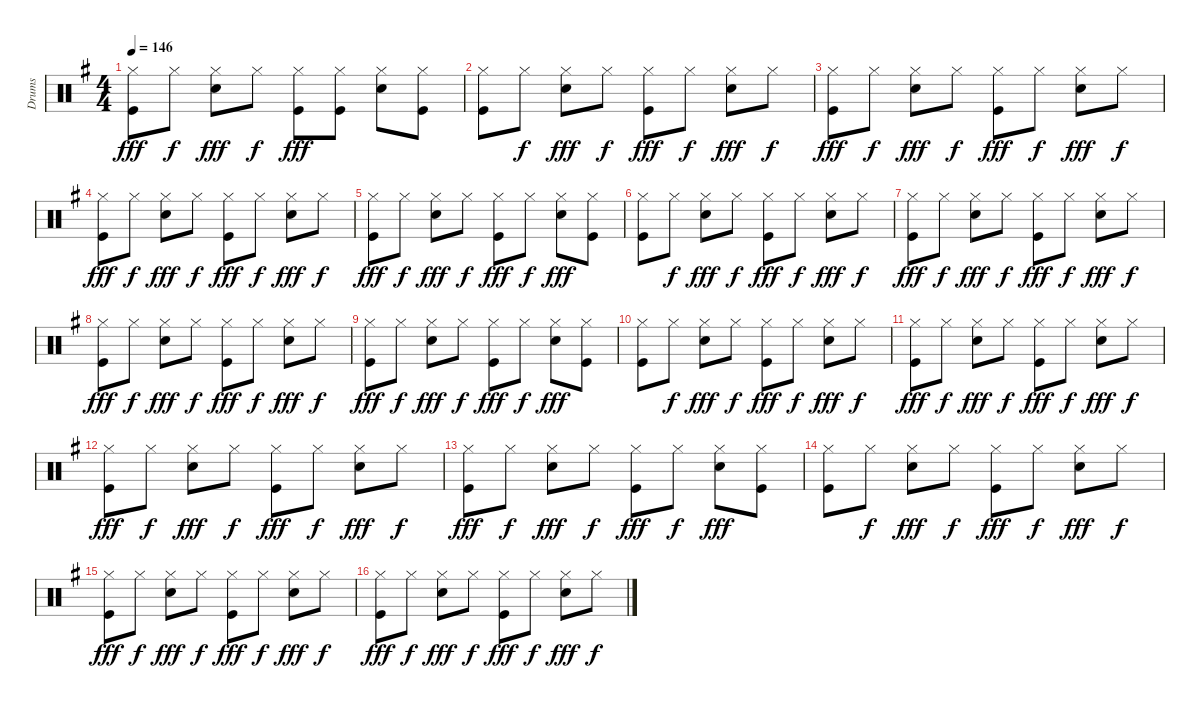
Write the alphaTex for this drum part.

\track ("Drums" "Drums") {instrument percussion}
\staff {score}
\articulation defaults
\ts (4 4)
\tempo 146
\clef neutral
\ks g
("Hi-Hat (closed)" "Kick (hit)").8{dy fff} "Hi-Hat (closed)".8{dy f} ("Hi-Hat (closed)" "Snare (hit) 2").8{dy fff} "Hi-Hat (closed)".8{dy f} ("Hi-Hat (closed)" "Kick (hit)").8{dy fff} ("Hi-Hat (closed)" "Kick (hit)").8 ("Hi-Hat (closed)" "Snare (hit) 2").8 ("Hi-Hat (closed)" "Kick (hit)").8 |
("Hi-Hat (closed)" "Kick (hit)").8 "Hi-Hat (closed)".8{dy f} ("Hi-Hat (closed)" "Snare (hit) 2").8{dy fff} "Hi-Hat (closed)".8{dy f} ("Hi-Hat (closed)" "Kick (hit)").8{dy fff} "Hi-Hat (closed)".8{dy f} ("Hi-Hat (closed)" "Snare (hit) 2").8{dy fff} "Hi-Hat (closed)".8{dy f} |
("Hi-Hat (closed)" "Kick (hit)").8{dy fff} "Hi-Hat (closed)".8{dy f} ("Hi-Hat (closed)" "Snare (hit) 2").8{dy fff} "Hi-Hat (closed)".8{dy f} ("Hi-Hat (closed)" "Kick (hit)").8{dy fff} "Hi-Hat (closed)".8{dy f} ("Hi-Hat (closed)" "Snare (hit) 2").8{dy fff} "Hi-Hat (closed)".8{dy f} |
("Hi-Hat (closed)" "Kick (hit)").8{dy fff} "Hi-Hat (closed)".8{dy f} ("Hi-Hat (closed)" "Snare (hit) 2").8{dy fff} "Hi-Hat (closed)".8{dy f} ("Hi-Hat (closed)" "Kick (hit)").8{dy fff} "Hi-Hat (closed)".8{dy f} ("Hi-Hat (closed)" "Snare (hit) 2").8{dy fff} "Hi-Hat (closed)".8{dy f} |
("Hi-Hat (closed)" "Kick (hit)").8{dy fff} "Hi-Hat (closed)".8{dy f} ("Hi-Hat (closed)" "Snare (hit) 2").8{dy fff} "Hi-Hat (closed)".8{dy f} ("Hi-Hat (closed)" "Kick (hit)").8{dy fff} "Hi-Hat (closed)".8{dy f} ("Hi-Hat (closed)" "Snare (hit) 2").8{dy fff} ("Hi-Hat (closed)" "Kick (hit)").8 |
("Hi-Hat (closed)" "Kick (hit)").8 "Hi-Hat (closed)".8{dy f} ("Hi-Hat (closed)" "Snare (hit) 2").8{dy fff} "Hi-Hat (closed)".8{dy f} ("Hi-Hat (closed)" "Kick (hit)").8{dy fff} "Hi-Hat (closed)".8{dy f} ("Hi-Hat (closed)" "Snare (hit) 2").8{dy fff} "Hi-Hat (closed)".8{dy f} |
("Hi-Hat (closed)" "Kick (hit)").8{dy fff} "Hi-Hat (closed)".8{dy f} ("Hi-Hat (closed)" "Snare (hit) 2").8{dy fff} "Hi-Hat (closed)".8{dy f} ("Hi-Hat (closed)" "Kick (hit)").8{dy fff} "Hi-Hat (closed)".8{dy f} ("Hi-Hat (closed)" "Snare (hit) 2").8{dy fff} "Hi-Hat (closed)".8{dy f} |
("Hi-Hat (closed)" "Kick (hit)").8{dy fff} "Hi-Hat (closed)".8{dy f} ("Hi-Hat (closed)" "Snare (hit) 2").8{dy fff} "Hi-Hat (closed)".8{dy f} ("Hi-Hat (closed)" "Kick (hit)").8{dy fff} "Hi-Hat (closed)".8{dy f} ("Hi-Hat (closed)" "Snare (hit) 2").8{dy fff} "Hi-Hat (closed)".8{dy f} |
("Hi-Hat (closed)" "Kick (hit)").8{dy fff} "Hi-Hat (closed)".8{dy f} ("Hi-Hat (closed)" "Snare (hit) 2").8{dy fff} "Hi-Hat (closed)".8{dy f} ("Hi-Hat (closed)" "Kick (hit)").8{dy fff} "Hi-Hat (closed)".8{dy f} ("Hi-Hat (closed)" "Snare (hit) 2").8{dy fff} ("Hi-Hat (closed)" "Kick (hit)").8 |
("Hi-Hat (closed)" "Kick (hit)").8 "Hi-Hat (closed)".8{dy f} ("Hi-Hat (closed)" "Snare (hit) 2").8{dy fff} "Hi-Hat (closed)".8{dy f} ("Hi-Hat (closed)" "Kick (hit)").8{dy fff} "Hi-Hat (closed)".8{dy f} ("Hi-Hat (closed)" "Snare (hit) 2").8{dy fff} "Hi-Hat (closed)".8{dy f} |
("Hi-Hat (closed)" "Kick (hit)").8{dy fff} "Hi-Hat (closed)".8{dy f} ("Hi-Hat (closed)" "Snare (hit) 2").8{dy fff} "Hi-Hat (closed)".8{dy f} ("Hi-Hat (closed)" "Kick (hit)").8{dy fff} "Hi-Hat (closed)".8{dy f} ("Hi-Hat (closed)" "Snare (hit) 2").8{dy fff} "Hi-Hat (closed)".8{dy f} |
("Hi-Hat (closed)" "Kick (hit)").8{dy fff} "Hi-Hat (closed)".8{dy f} ("Hi-Hat (closed)" "Snare (hit) 2").8{dy fff} "Hi-Hat (closed)".8{dy f} ("Hi-Hat (closed)" "Kick (hit)").8{dy fff} "Hi-Hat (closed)".8{dy f} ("Hi-Hat (closed)" "Snare (hit) 2").8{dy fff} "Hi-Hat (closed)".8{dy f} |
("Hi-Hat (closed)" "Kick (hit)").8{dy fff} "Hi-Hat (closed)".8{dy f} ("Hi-Hat (closed)" "Snare (hit) 2").8{dy fff} "Hi-Hat (closed)".8{dy f} ("Hi-Hat (closed)" "Kick (hit)").8{dy fff} "Hi-Hat (closed)".8{dy f} ("Hi-Hat (closed)" "Snare (hit) 2").8{dy fff} ("Hi-Hat (closed)" "Kick (hit)").8 |
("Hi-Hat (closed)" "Kick (hit)").8 "Hi-Hat (closed)".8{dy f} ("Hi-Hat (closed)" "Snare (hit) 2").8{dy fff} "Hi-Hat (closed)".8{dy f} ("Hi-Hat (closed)" "Kick (hit)").8{dy fff} "Hi-Hat (closed)".8{dy f} ("Hi-Hat (closed)" "Snare (hit) 2").8{dy fff} "Hi-Hat (closed)".8{dy f} |
("Hi-Hat (closed)" "Kick (hit)").8{dy fff} "Hi-Hat (closed)".8{dy f} ("Hi-Hat (closed)" "Snare (hit) 2").8{dy fff} "Hi-Hat (closed)".8{dy f} ("Hi-Hat (closed)" "Kick (hit)").8{dy fff} "Hi-Hat (closed)".8{dy f} ("Hi-Hat (closed)" "Snare (hit) 2").8{dy fff} "Hi-Hat (closed)".8{dy f} |
("Hi-Hat (closed)" "Kick (hit)").8{dy fff} "Hi-Hat (closed)".8{dy f} ("Hi-Hat (closed)" "Snare (hit) 2").8{dy fff} "Hi-Hat (closed)".8{dy f} ("Hi-Hat (closed)" "Kick (hit)").8{dy fff} "Hi-Hat (closed)".8{dy f} ("Hi-Hat (closed)" "Snare (hit) 2").8{dy fff} "Hi-Hat (closed)".8{dy f}
